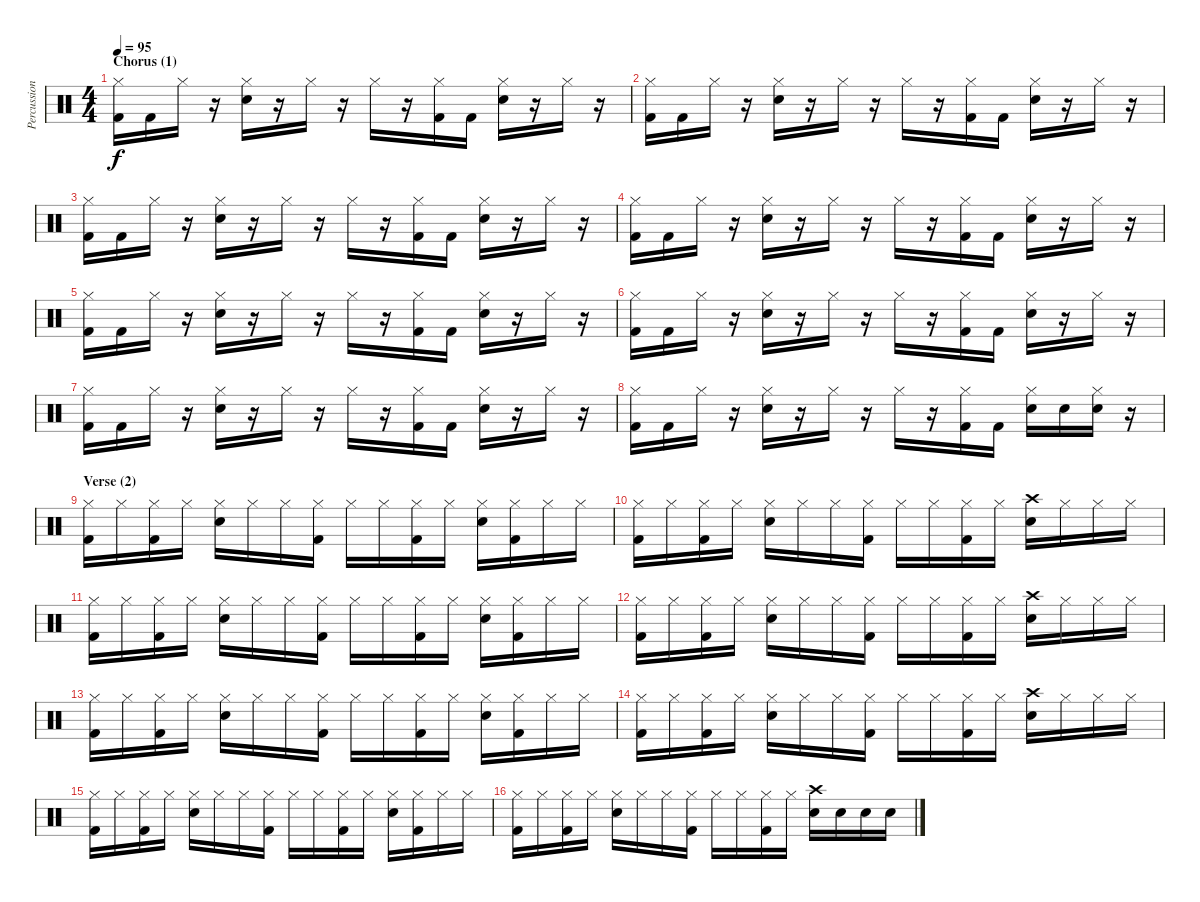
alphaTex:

\track ("Percussion" "Percussion") {instrument percussion}
\staff {score}
\articulation defaults
\ts (4 4)
\section ("" "Chorus (1)")
\tempo 95
\clef neutral
\ks c
("Hi-Hat (closed)" "Kick (hit) 2").16{dy f} "Kick (hit) 2".16 "Hi-Hat (closed)".16 r.16 ("Hi-Hat (closed)" "Snare (hit) 2").16 r.16 "Hi-Hat (closed)".16 r.16 "Hi-Hat (closed)".16 r.16 ("Hi-Hat (closed)" "Kick (hit) 2").16 "Kick (hit) 2".16 ("Hi-Hat (closed)" "Snare (hit) 2").16 r.16 "Hi-Hat (closed)".16 r.16 |
("Hi-Hat (closed)" "Kick (hit) 2").16 "Kick (hit) 2".16 "Hi-Hat (closed)".16 r.16 ("Hi-Hat (closed)" "Snare (hit) 2").16 r.16 "Hi-Hat (closed)".16 r.16 "Hi-Hat (closed)".16 r.16 ("Hi-Hat (closed)" "Kick (hit) 2").16 "Kick (hit) 2".16 ("Hi-Hat (closed)" "Snare (hit) 2").16 r.16 "Hi-Hat (closed)".16 r.16 |
("Hi-Hat (closed)" "Kick (hit) 2").16 "Kick (hit) 2".16 "Hi-Hat (closed)".16 r.16 ("Hi-Hat (closed)" "Snare (hit) 2").16 r.16 "Hi-Hat (closed)".16 r.16 "Hi-Hat (closed)".16 r.16 ("Hi-Hat (closed)" "Kick (hit) 2").16 "Kick (hit) 2".16 ("Hi-Hat (closed)" "Snare (hit) 2").16 r.16 "Hi-Hat (closed)".16 r.16 |
("Hi-Hat (closed)" "Kick (hit) 2").16 "Kick (hit) 2".16 "Hi-Hat (closed)".16 r.16 ("Hi-Hat (closed)" "Snare (hit) 2").16 r.16 "Hi-Hat (closed)".16 r.16 "Hi-Hat (closed)".16 r.16 ("Hi-Hat (closed)" "Kick (hit) 2").16 "Kick (hit) 2".16 ("Hi-Hat (closed)" "Snare (hit) 2").16 r.16 "Hi-Hat (closed)".16 r.16 |
("Hi-Hat (closed)" "Kick (hit) 2").16 "Kick (hit) 2".16 "Hi-Hat (closed)".16 r.16 ("Hi-Hat (closed)" "Snare (hit) 2").16 r.16 "Hi-Hat (closed)".16 r.16 "Hi-Hat (closed)".16 r.16 ("Hi-Hat (closed)" "Kick (hit) 2").16 "Kick (hit) 2".16 ("Hi-Hat (closed)" "Snare (hit) 2").16 r.16 "Hi-Hat (closed)".16 r.16 |
("Hi-Hat (closed)" "Kick (hit) 2").16 "Kick (hit) 2".16 "Hi-Hat (closed)".16 r.16 ("Hi-Hat (closed)" "Snare (hit) 2").16 r.16 "Hi-Hat (closed)".16 r.16 "Hi-Hat (closed)".16 r.16 ("Hi-Hat (closed)" "Kick (hit) 2").16 "Kick (hit) 2".16 ("Hi-Hat (closed)" "Snare (hit) 2").16 r.16 "Hi-Hat (closed)".16 r.16 |
("Hi-Hat (closed)" "Kick (hit) 2").16 "Kick (hit) 2".16 "Hi-Hat (closed)".16 r.16 ("Hi-Hat (closed)" "Snare (hit) 2").16 r.16 "Hi-Hat (closed)".16 r.16 "Hi-Hat (closed)".16 r.16 ("Hi-Hat (closed)" "Kick (hit) 2").16 "Kick (hit) 2".16 ("Hi-Hat (closed)" "Snare (hit) 2").16 r.16 "Hi-Hat (closed)".16 r.16 |
("Hi-Hat (closed)" "Kick (hit) 2").16 "Kick (hit) 2".16 "Hi-Hat (closed)".16 r.16 ("Hi-Hat (closed)" "Snare (hit) 2").16 r.16 "Hi-Hat (closed)".16 r.16 "Hi-Hat (closed)".16 r.16 ("Hi-Hat (closed)" "Kick (hit) 2").16 "Kick (hit) 2".16 ("Hi-Hat (closed)" "Snare (hit) 2").16 "Snare (hit) 2".16 ("Hi-Hat (closed)" "Snare (hit) 2").16 r.16 |
\section ("" "Verse (2)")
("Hi-Hat (closed)" "Kick (hit) 2").16 "Hi-Hat (closed)"{x}.16 ("Hi-Hat (closed)" "Kick (hit) 2").16 "Hi-Hat (closed)"{x}.16 ("Hi-Hat (closed)" "Snare (hit) 2").16 "Hi-Hat (closed)"{x}.16 "Hi-Hat (closed)".16 ("Hi-Hat (closed)"{x} "Kick (hit) 2").16 "Hi-Hat (closed)".16 "Hi-Hat (closed)"{x}.16 ("Hi-Hat (closed)" "Kick (hit) 2").16 "Hi-Hat (closed)"{x}.16 ("Hi-Hat (closed)" "Snare (hit) 2").16 ("Hi-Hat (closed)"{x} "Kick (hit) 2").16 "Hi-Hat (closed)".16 "Hi-Hat (closed)"{x}.16 |
("Hi-Hat (closed)" "Kick (hit) 2").16 "Hi-Hat (closed)"{x}.16 ("Hi-Hat (closed)" "Kick (hit) 2").16 "Hi-Hat (closed)"{x}.16 ("Hi-Hat (closed)" "Snare (hit) 2").16 "Hi-Hat (closed)"{x}.16 "Hi-Hat (closed)".16 ("Hi-Hat (closed)"{x} "Kick (hit) 2").16 "Hi-Hat (closed)".16 "Hi-Hat (closed)"{x}.16 ("Hi-Hat (closed)" "Kick (hit) 2").16 "Hi-Hat (closed)"{x}.16 ("Crash high (hit)" "Snare (hit) 2").16 "Hi-Hat (closed)"{x}.16 "Hi-Hat (closed)".16 "Hi-Hat (closed)"{x}.16 |
("Hi-Hat (closed)" "Kick (hit) 2").16 "Hi-Hat (closed)"{x}.16 ("Hi-Hat (closed)" "Kick (hit) 2").16 "Hi-Hat (closed)"{x}.16 ("Hi-Hat (closed)" "Snare (hit) 2").16 "Hi-Hat (closed)"{x}.16 "Hi-Hat (closed)".16 ("Hi-Hat (closed)"{x} "Kick (hit) 2").16 "Hi-Hat (closed)".16 "Hi-Hat (closed)"{x}.16 ("Hi-Hat (closed)" "Kick (hit) 2").16 "Hi-Hat (closed)"{x}.16 ("Hi-Hat (closed)" "Snare (hit) 2").16 ("Hi-Hat (closed)"{x} "Kick (hit) 2").16 "Hi-Hat (closed)".16 "Hi-Hat (closed)"{x}.16 |
("Hi-Hat (closed)" "Kick (hit) 2").16 "Hi-Hat (closed)"{x}.16 ("Hi-Hat (closed)" "Kick (hit) 2").16 "Hi-Hat (closed)"{x}.16 ("Hi-Hat (closed)" "Snare (hit) 2").16 "Hi-Hat (closed)"{x}.16 "Hi-Hat (closed)".16 ("Hi-Hat (closed)"{x} "Kick (hit) 2").16 "Hi-Hat (closed)".16 "Hi-Hat (closed)"{x}.16 ("Hi-Hat (closed)" "Kick (hit) 2").16 "Hi-Hat (closed)"{x}.16 ("Crash high (hit)" "Snare (hit) 2").16 "Hi-Hat (closed)"{x}.16 "Hi-Hat (closed)".16 "Hi-Hat (closed)"{x}.16 |
("Hi-Hat (closed)" "Kick (hit) 2").16 "Hi-Hat (closed)"{x}.16 ("Hi-Hat (closed)" "Kick (hit) 2").16 "Hi-Hat (closed)"{x}.16 ("Hi-Hat (closed)" "Snare (hit) 2").16 "Hi-Hat (closed)"{x}.16 "Hi-Hat (closed)".16 ("Hi-Hat (closed)"{x} "Kick (hit) 2").16 "Hi-Hat (closed)".16 "Hi-Hat (closed)"{x}.16 ("Hi-Hat (closed)" "Kick (hit) 2").16 "Hi-Hat (closed)"{x}.16 ("Hi-Hat (closed)" "Snare (hit) 2").16 ("Hi-Hat (closed)"{x} "Kick (hit) 2").16 "Hi-Hat (closed)".16 "Hi-Hat (closed)"{x}.16 |
("Hi-Hat (closed)" "Kick (hit) 2").16 "Hi-Hat (closed)"{x}.16 ("Hi-Hat (closed)" "Kick (hit) 2").16 "Hi-Hat (closed)"{x}.16 ("Hi-Hat (closed)" "Snare (hit) 2").16 "Hi-Hat (closed)"{x}.16 "Hi-Hat (closed)".16 ("Hi-Hat (closed)"{x} "Kick (hit) 2").16 "Hi-Hat (closed)".16 "Hi-Hat (closed)"{x}.16 ("Hi-Hat (closed)" "Kick (hit) 2").16 "Hi-Hat (closed)"{x}.16 ("Crash high (hit)" "Snare (hit) 2").16 "Hi-Hat (closed)"{x}.16 "Hi-Hat (closed)".16 "Hi-Hat (closed)"{x}.16 |
("Hi-Hat (closed)" "Kick (hit) 2").16 "Hi-Hat (closed)"{x}.16 ("Hi-Hat (closed)" "Kick (hit) 2").16 "Hi-Hat (closed)"{x}.16 ("Hi-Hat (closed)" "Snare (hit) 2").16 "Hi-Hat (closed)"{x}.16 "Hi-Hat (closed)".16 ("Hi-Hat (closed)"{x} "Kick (hit) 2").16 "Hi-Hat (closed)".16 "Hi-Hat (closed)"{x}.16 ("Hi-Hat (closed)" "Kick (hit) 2").16 "Hi-Hat (closed)"{x}.16 ("Hi-Hat (closed)" "Snare (hit) 2").16 ("Hi-Hat (closed)"{x} "Kick (hit) 2").16 "Hi-Hat (closed)".16 "Hi-Hat (closed)"{x}.16 |
("Hi-Hat (closed)" "Kick (hit) 2").16 "Hi-Hat (closed)"{x}.16 ("Hi-Hat (closed)" "Kick (hit) 2").16 "Hi-Hat (closed)"{x}.16 ("Hi-Hat (closed)" "Snare (hit) 2").16 "Hi-Hat (closed)"{x}.16 "Hi-Hat (closed)".16 ("Hi-Hat (closed)"{x} "Kick (hit) 2").16 "Hi-Hat (closed)".16 "Hi-Hat (closed)"{x}.16 ("Hi-Hat (closed)" "Kick (hit) 2").16 "Hi-Hat (closed)"{x}.16 ("Snare (hit) 2" "Crash high (hit)").16 "Snare (hit) 2".16 "Snare (hit) 2".16 "Snare (hit) 2".16
